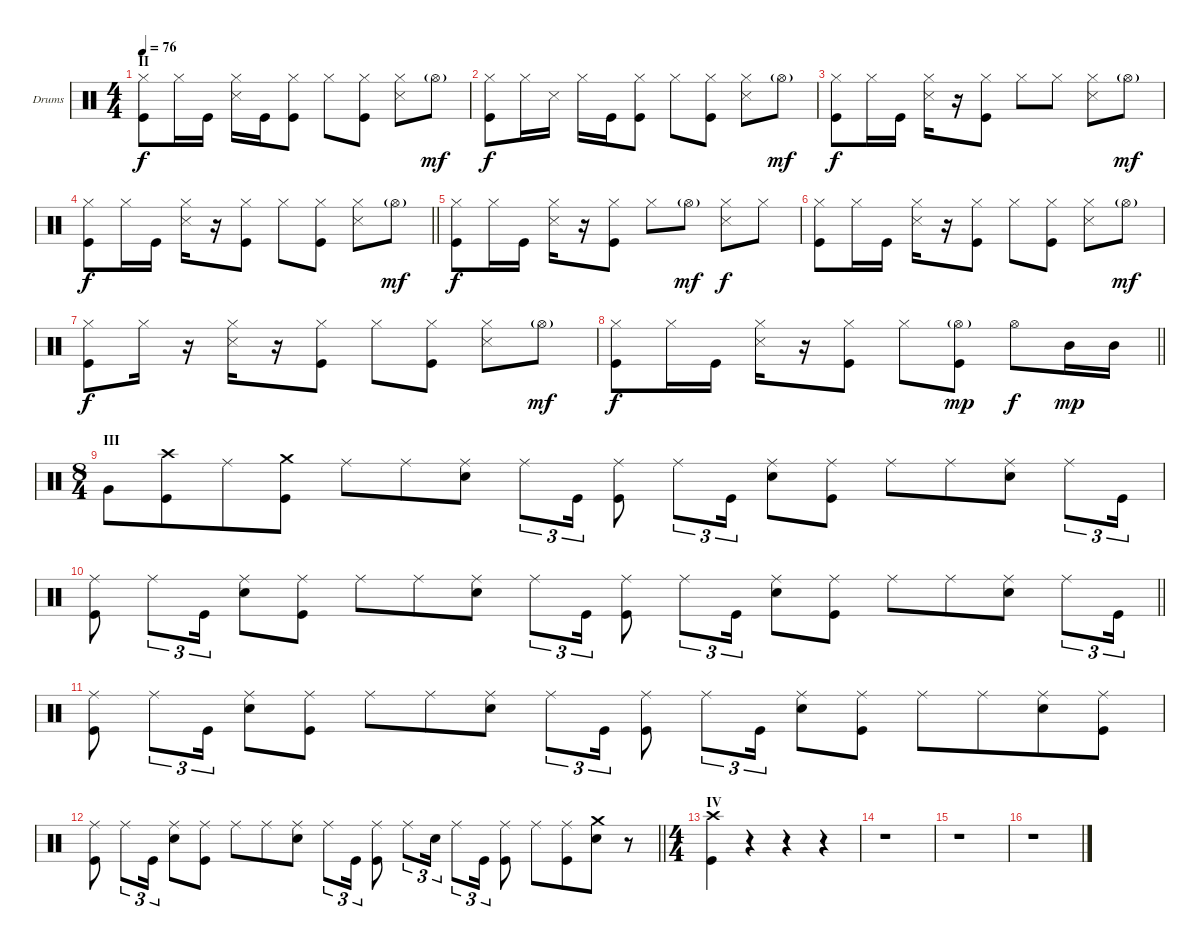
\bracketExtendMode groupsimilarinstruments
\firstSystemTrackNameOrientation horizontal
\otherSystemsTrackNameOrientation horizontal
\track ("Drumkit" "Drums") {instrument percussion}
\staff {score}
\articulation defaults
\ts (4 4)
\beaming (8 2 2 2 2)
\section ("" "II")
\tempo 76
\clef neutral
\ks c
("Hi-Hat (closed)" "Kick (hit)").8{dy f} "Hi-Hat (closed)".16 "Kick (hit)".16 ("Hi-Hat (closed)" "Snare (side stick) 3").16 "Kick (hit)".16 ("Hi-Hat (closed)" "Kick (hit)").8 "Hi-Hat (closed)".8 ("Hi-Hat (closed)" "Kick (hit)").8 ("Hi-Hat (closed)" "Snare (side stick) 3").8 "Hi-Hat (open)"{g}.8{dy mf} |
("Hi-Hat (closed)" "Kick (hit)").8{dy f} "Hi-Hat (closed)".16 "Snare (side stick) 3".16 "Hi-Hat (closed)".16 "Kick (hit)".16 ("Hi-Hat (closed)" "Kick (hit)").8 "Hi-Hat (closed)".8 ("Hi-Hat (closed)" "Kick (hit)").8 ("Hi-Hat (closed)" "Snare (side stick) 3").8 "Hi-Hat (open)"{g}.8{dy mf} |
("Hi-Hat (closed)" "Kick (hit)").8{dy f} "Hi-Hat (closed)".16 "Kick (hit)".16 ("Hi-Hat (closed)" "Snare (side stick) 3").16 r.16 ("Hi-Hat (closed)" "Kick (hit)").8 "Hi-Hat (closed)".8 "Hi-Hat (closed)".8 ("Hi-Hat (closed)" "Snare (side stick) 3").8 "Hi-Hat (open)"{g}.8{dy mf} |
\barLineRight lightlight
("Hi-Hat (closed)" "Kick (hit)").8{dy f} "Hi-Hat (closed)".16 "Kick (hit)".16 ("Hi-Hat (closed)" "Snare (side stick) 3").16 r.16 ("Hi-Hat (closed)" "Kick (hit)").8 "Hi-Hat (closed)".8 ("Hi-Hat (closed)" "Kick (hit)").8 ("Hi-Hat (closed)" "Snare (side stick) 3").8 "Hi-Hat (open)"{g}.8{dy mf} |
("Hi-Hat (closed)" "Kick (hit)").8{dy f} "Hi-Hat (closed)".16 "Kick (hit)".16 ("Hi-Hat (closed)" "Snare (side stick) 3").16 r.16 ("Hi-Hat (closed)" "Kick (hit)").8 "Hi-Hat (closed)".8 "Hi-Hat (open)"{g}.8{dy mf} ("Hi-Hat (closed)" "Snare (side stick) 3").8{dy f} "Hi-Hat (closed)".8 |
("Hi-Hat (closed)" "Kick (hit)").8 "Hi-Hat (closed)".16 "Kick (hit)".16 ("Hi-Hat (closed)" "Snare (side stick) 3").16 r.16 ("Hi-Hat (closed)" "Kick (hit)").8 "Hi-Hat (closed)".8 ("Hi-Hat (closed)" "Kick (hit)").8 ("Hi-Hat (closed)" "Snare (side stick) 3").8 "Hi-Hat (open)"{g}.8{dy mf} |
("Hi-Hat (closed)" "Kick (hit)").8{dy f} "Hi-Hat (closed)".16 r.16 ("Hi-Hat (closed)" "Snare (side stick) 3").16 r.16 ("Hi-Hat (closed)" "Kick (hit)").8 "Hi-Hat (closed)".8 ("Hi-Hat (closed)" "Kick (hit)").8 ("Hi-Hat (closed)" "Snare (side stick) 3").8 "Hi-Hat (open)"{g}.8{dy mf} |
\barLineRight lightlight
("Hi-Hat (closed)" "Kick (hit)").8{dy f} "Hi-Hat (closed)".16 "Kick (hit)".16 ("Hi-Hat (closed)" "Snare (side stick) 3").16 r.16 ("Hi-Hat (closed)" "Kick (hit)").8 "Hi-Hat (closed)".8 ("Hi-Hat (open)"{g} "Kick (hit)").8{dy mp} "Hi-Hat (open)".8{dy f} "Mid Tom (hit)".16{dy mp} "Mid Tom (hit)".16 |
\ts (8 4)
\beaming (8 4 4 4 4)
\section ("" "III")
"Very Low Tom (hit)".8 ("Crash high (hit)" "Kick (hit)").8 "Ride (middle)".8 ("Crash medium (hit)" "Kick (hit)").8 "Ride (middle)".8 "Ride (middle)".8 ("Ride (middle)" "Snare (hit) 2").8 "Ride (middle)".8{tu (3 2)} "Kick (hit)".16{tu (3 2)} ("Ride (middle)" "Kick (hit)").8 "Ride (middle)".8{tu (3 2)} "Kick (hit)".16{tu (3 2)} ("Ride (middle)" "Snare (hit) 2").8 ("Ride (middle)" "Kick (hit)").8 "Ride (middle)".8 "Ride (middle)".8 ("Ride (middle)" "Snare (hit) 2").8 "Ride (middle)".8{tu (3 2)} "Kick (hit)".16{tu (3 2)} |
\barLineRight lightlight
("Ride (middle)" "Kick (hit)").8 "Ride (middle)".8{tu (3 2)} "Kick (hit)".16{tu (3 2)} ("Ride (middle)" "Snare (hit) 2").8 ("Ride (middle)" "Kick (hit)").8 "Ride (middle)".8 "Ride (middle)".8 ("Ride (middle)" "Snare (hit) 2").8 "Ride (middle)".8{tu (3 2)} "Kick (hit)".16{tu (3 2)} ("Ride (middle)" "Kick (hit)").8 "Ride (middle)".8{tu (3 2)} "Kick (hit)".16{tu (3 2)} ("Ride (middle)" "Snare (hit) 2").8 ("Ride (middle)" "Kick (hit)").8 "Ride (middle)".8 "Ride (middle)".8 ("Ride (middle)" "Snare (hit) 2").8 "Ride (middle)".8{tu (3 2)} "Kick (hit)".16{tu (3 2)} |
("Ride (middle)" "Kick (hit)").8 "Ride (middle)".8{tu (3 2)} "Kick (hit)".16{tu (3 2)} ("Ride (middle)" "Snare (hit) 2").8 ("Ride (middle)" "Kick (hit)").8 "Ride (middle)".8 "Ride (middle)".8 ("Ride (middle)" "Snare (hit) 2").8 "Ride (middle)".8{tu (3 2)} "Kick (hit)".16{tu (3 2)} ("Ride (middle)" "Kick (hit)").8 "Ride (middle)".8{tu (3 2)} "Kick (hit)".16{tu (3 2)} ("Ride (middle)" "Snare (hit) 2").8 ("Ride (middle)" "Kick (hit)").8 "Ride (middle)".8 "Ride (middle)".8 ("Ride (middle)" "Snare (hit) 2").8 ("Ride (middle)" "Kick (hit)").8 |
\barLineRight lightlight
("Ride (middle)" "Kick (hit)").8 "Ride (middle)".8{tu (3 2)} "Kick (hit)".16{tu (3 2)} ("Ride (middle)" "Snare (hit) 2").8 ("Ride (middle)" "Kick (hit)").8 "Ride (middle)".8 "Ride (middle)".8 ("Ride (middle)" "Snare (hit) 2").8 "Ride (middle)".8{tu (3 2)} "Kick (hit)".16{tu (3 2)} ("Ride (middle)" "Kick (hit)").8 "Ride (middle)".8{tu (3 2)} "Snare (hit) 2".16{tu (3 2)} "Ride (middle)".8{tu (3 2)} "Kick (hit)".16{tu (3 2)} ("Ride (middle)" "Kick (hit)").8 "Ride (middle)".8 ("Ride (middle)" "Kick (hit)").8 ("Crash medium (hit)" "Snare (hit) 2").8 r.8 |
\ts (4 4)
\beaming (8 2 2 2 2)
\section ("" "IV")
("Kick (hit)" "Crash high (hit)").4 r.4 r.4 r.4 |
r.1 |
r.1 |
r.1
